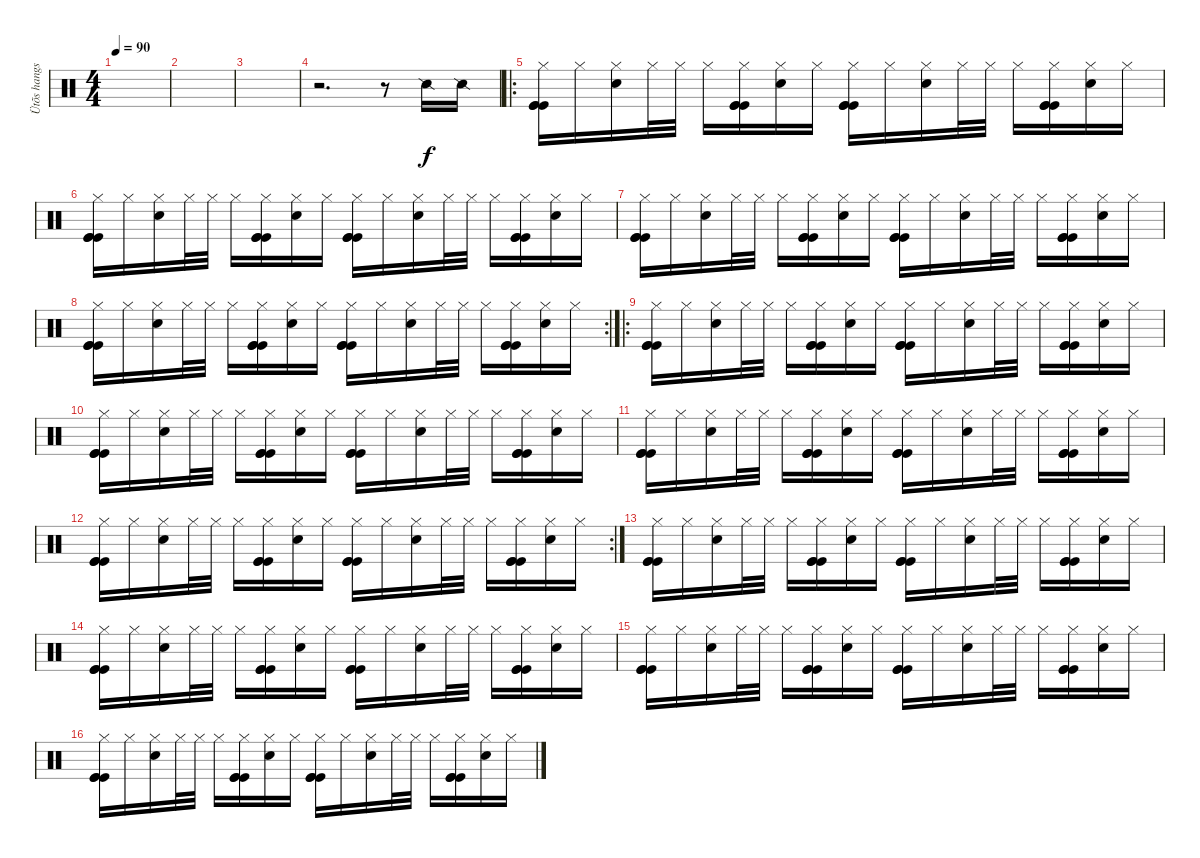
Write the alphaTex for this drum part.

\track ("Ütõs hangszer" "Ütõs hangs") {instrument percussion}
\staff {score}
\articulation defaults
\ts (4 4)
\tempo 90
\clef neutral
\ks c
|
|
|
r.2{d} r.8 "Snare (side stick) 2".16 "Snare (side stick) 2".16 |
\ro
("Hi-Hat (closed)" "Kick (hit)" "Kick (hit)" "Kick (hit)").16 "Hi-Hat (closed)".16 ("Hi-Hat (closed)" "Electric Snare (hit)").16 "Hi-Hat (closed)".32 "Hi-Hat (closed)".32 "Hi-Hat (closed)".16 ("Hi-Hat (closed)" "Kick (hit)" "Kick (hit)" "Kick (hit)").16 ("Hi-Hat (closed)" "Electric Snare (hit)").16 "Hi-Hat (closed)".16 ("Hi-Hat (closed)" "Kick (hit)" "Kick (hit)" "Kick (hit)").16 "Hi-Hat (closed)".16 ("Hi-Hat (closed)" "Electric Snare (hit)").16 "Hi-Hat (closed)".32 "Hi-Hat (closed)".32 "Hi-Hat (closed)".16 ("Hi-Hat (closed)" "Kick (hit)" "Kick (hit)" "Kick (hit)").16 ("Hi-Hat (closed)" "Electric Snare (hit)").16 "Hi-Hat (closed)".16 |
("Hi-Hat (closed)" "Kick (hit)" "Kick (hit)" "Kick (hit)").16 "Hi-Hat (closed)".16 ("Hi-Hat (closed)" "Electric Snare (hit)").16 "Hi-Hat (closed)".32 "Hi-Hat (closed)".32 "Hi-Hat (closed)".16 ("Hi-Hat (closed)" "Kick (hit)" "Kick (hit)" "Kick (hit)").16 ("Hi-Hat (closed)" "Electric Snare (hit)").16 "Hi-Hat (closed)".16 ("Hi-Hat (closed)" "Kick (hit)" "Kick (hit)" "Kick (hit)").16 "Hi-Hat (closed)".16 ("Hi-Hat (closed)" "Electric Snare (hit)").16 "Hi-Hat (closed)".32 "Hi-Hat (closed)".32 "Hi-Hat (closed)".16 ("Hi-Hat (closed)" "Kick (hit)" "Kick (hit)" "Kick (hit)").16 ("Hi-Hat (closed)" "Electric Snare (hit)").16 "Hi-Hat (closed)".16 |
("Hi-Hat (closed)" "Kick (hit)" "Kick (hit)" "Kick (hit)").16 "Hi-Hat (closed)".16 ("Hi-Hat (closed)" "Electric Snare (hit)").16 "Hi-Hat (closed)".32 "Hi-Hat (closed)".32 "Hi-Hat (closed)".16 ("Hi-Hat (closed)" "Kick (hit)" "Kick (hit)" "Kick (hit)").16 ("Hi-Hat (closed)" "Electric Snare (hit)").16 "Hi-Hat (closed)".16 ("Hi-Hat (closed)" "Kick (hit)" "Kick (hit)" "Kick (hit)").16 "Hi-Hat (closed)".16 ("Hi-Hat (closed)" "Electric Snare (hit)").16 "Hi-Hat (closed)".32 "Hi-Hat (closed)".32 "Hi-Hat (closed)".16 ("Hi-Hat (closed)" "Kick (hit)" "Kick (hit)" "Kick (hit)").16 ("Hi-Hat (closed)" "Electric Snare (hit)").16 "Hi-Hat (closed)".16 |
\rc 2
("Hi-Hat (closed)" "Kick (hit)" "Kick (hit)" "Kick (hit)").16 "Hi-Hat (closed)".16 ("Hi-Hat (closed)" "Electric Snare (hit)").16 "Hi-Hat (closed)".32 "Hi-Hat (closed)".32 "Hi-Hat (closed)".16 ("Hi-Hat (closed)" "Kick (hit)" "Kick (hit)" "Kick (hit)").16 ("Hi-Hat (closed)" "Electric Snare (hit)").16 "Hi-Hat (closed)".16 ("Hi-Hat (closed)" "Kick (hit)" "Kick (hit)" "Kick (hit)").16 "Hi-Hat (closed)".16 ("Hi-Hat (closed)" "Electric Snare (hit)").16 "Hi-Hat (closed)".32 "Hi-Hat (closed)".32 "Hi-Hat (closed)".16 ("Hi-Hat (closed)" "Kick (hit)" "Kick (hit)" "Kick (hit)").16 ("Hi-Hat (closed)" "Electric Snare (hit)").16 "Hi-Hat (closed)".16 |
\ro
("Hi-Hat (closed)" "Kick (hit)" "Kick (hit)" "Kick (hit)").16 "Hi-Hat (closed)".16 ("Hi-Hat (closed)" "Electric Snare (hit)").16 "Hi-Hat (closed)".32 "Hi-Hat (closed)".32 "Hi-Hat (closed)".16 ("Hi-Hat (closed)" "Kick (hit)" "Kick (hit)" "Kick (hit)").16 ("Hi-Hat (closed)" "Electric Snare (hit)").16 "Hi-Hat (closed)".16 ("Hi-Hat (closed)" "Kick (hit)" "Kick (hit)" "Kick (hit)").16 "Hi-Hat (closed)".16 ("Hi-Hat (closed)" "Electric Snare (hit)").16 "Hi-Hat (closed)".32 "Hi-Hat (closed)".32 "Hi-Hat (closed)".16 ("Hi-Hat (closed)" "Kick (hit)" "Kick (hit)" "Kick (hit)").16 ("Hi-Hat (closed)" "Electric Snare (hit)").16 "Hi-Hat (closed)".16 |
("Hi-Hat (closed)" "Kick (hit)" "Kick (hit)" "Kick (hit)").16 "Hi-Hat (closed)".16 ("Hi-Hat (closed)" "Electric Snare (hit)").16 "Hi-Hat (closed)".32 "Hi-Hat (closed)".32 "Hi-Hat (closed)".16 ("Hi-Hat (closed)" "Kick (hit)" "Kick (hit)" "Kick (hit)").16 ("Hi-Hat (closed)" "Electric Snare (hit)").16 "Hi-Hat (closed)".16 ("Hi-Hat (closed)" "Kick (hit)" "Kick (hit)" "Kick (hit)").16 "Hi-Hat (closed)".16 ("Hi-Hat (closed)" "Electric Snare (hit)").16 "Hi-Hat (closed)".32 "Hi-Hat (closed)".32 "Hi-Hat (closed)".16 ("Hi-Hat (closed)" "Kick (hit)" "Kick (hit)" "Kick (hit)").16 ("Hi-Hat (closed)" "Electric Snare (hit)").16 "Hi-Hat (closed)".16 |
("Hi-Hat (closed)" "Kick (hit)" "Kick (hit)" "Kick (hit)").16 "Hi-Hat (closed)".16 ("Hi-Hat (closed)" "Electric Snare (hit)").16 "Hi-Hat (closed)".32 "Hi-Hat (closed)".32 "Hi-Hat (closed)".16 ("Hi-Hat (closed)" "Kick (hit)" "Kick (hit)" "Kick (hit)").16 ("Hi-Hat (closed)" "Electric Snare (hit)").16 "Hi-Hat (closed)".16 ("Hi-Hat (closed)" "Kick (hit)" "Kick (hit)" "Kick (hit)").16 "Hi-Hat (closed)".16 ("Hi-Hat (closed)" "Electric Snare (hit)").16 "Hi-Hat (closed)".32 "Hi-Hat (closed)".32 "Hi-Hat (closed)".16 ("Hi-Hat (closed)" "Kick (hit)" "Kick (hit)" "Kick (hit)").16 ("Hi-Hat (closed)" "Electric Snare (hit)").16 "Hi-Hat (closed)".16 |
\rc 2
("Hi-Hat (closed)" "Kick (hit)" "Kick (hit)" "Kick (hit)").16 "Hi-Hat (closed)".16 ("Hi-Hat (closed)" "Electric Snare (hit)").16 "Hi-Hat (closed)".32 "Hi-Hat (closed)".32 "Hi-Hat (closed)".16 ("Hi-Hat (closed)" "Kick (hit)" "Kick (hit)" "Kick (hit)").16 ("Hi-Hat (closed)" "Electric Snare (hit)").16 "Hi-Hat (closed)".16 ("Hi-Hat (closed)" "Kick (hit)" "Kick (hit)" "Kick (hit)").16 "Hi-Hat (closed)".16 ("Hi-Hat (closed)" "Electric Snare (hit)").16 "Hi-Hat (closed)".32 "Hi-Hat (closed)".32 "Hi-Hat (closed)".16 ("Hi-Hat (closed)" "Kick (hit)" "Kick (hit)" "Kick (hit)").16 ("Hi-Hat (closed)" "Electric Snare (hit)").16 "Hi-Hat (closed)".16 |
("Hi-Hat (closed)" "Kick (hit)" "Kick (hit)" "Kick (hit)").16 "Hi-Hat (closed)".16 ("Hi-Hat (closed)" "Electric Snare (hit)").16 "Hi-Hat (closed)".32 "Hi-Hat (closed)".32 "Hi-Hat (closed)".16 ("Hi-Hat (closed)" "Kick (hit)" "Kick (hit)" "Kick (hit)").16 ("Hi-Hat (closed)" "Electric Snare (hit)").16 "Hi-Hat (closed)".16 ("Hi-Hat (closed)" "Kick (hit)" "Kick (hit)" "Kick (hit)").16 "Hi-Hat (closed)".16 ("Hi-Hat (closed)" "Electric Snare (hit)").16 "Hi-Hat (closed)".32 "Hi-Hat (closed)".32 "Hi-Hat (closed)".16 ("Hi-Hat (closed)" "Kick (hit)" "Kick (hit)" "Kick (hit)").16 ("Hi-Hat (closed)" "Electric Snare (hit)").16 "Hi-Hat (closed)".16 |
("Hi-Hat (closed)" "Kick (hit)" "Kick (hit)" "Kick (hit)").16 "Hi-Hat (closed)".16 ("Hi-Hat (closed)" "Electric Snare (hit)").16 "Hi-Hat (closed)".32 "Hi-Hat (closed)".32 "Hi-Hat (closed)".16 ("Hi-Hat (closed)" "Kick (hit)" "Kick (hit)" "Kick (hit)").16 ("Hi-Hat (closed)" "Electric Snare (hit)").16 "Hi-Hat (closed)".16 ("Hi-Hat (closed)" "Kick (hit)" "Kick (hit)" "Kick (hit)").16 "Hi-Hat (closed)".16 ("Hi-Hat (closed)" "Electric Snare (hit)").16 "Hi-Hat (closed)".32 "Hi-Hat (closed)".32 "Hi-Hat (closed)".16 ("Hi-Hat (closed)" "Kick (hit)" "Kick (hit)" "Kick (hit)").16 ("Hi-Hat (closed)" "Electric Snare (hit)").16 "Hi-Hat (closed)".16 |
("Hi-Hat (closed)" "Kick (hit)" "Kick (hit)" "Kick (hit)").16 "Hi-Hat (closed)".16 ("Hi-Hat (closed)" "Electric Snare (hit)").16 "Hi-Hat (closed)".32 "Hi-Hat (closed)".32 "Hi-Hat (closed)".16 ("Hi-Hat (closed)" "Kick (hit)" "Kick (hit)" "Kick (hit)").16 ("Hi-Hat (closed)" "Electric Snare (hit)").16 "Hi-Hat (closed)".16 ("Hi-Hat (closed)" "Kick (hit)" "Kick (hit)" "Kick (hit)").16 "Hi-Hat (closed)".16 ("Hi-Hat (closed)" "Electric Snare (hit)").16 "Hi-Hat (closed)".32 "Hi-Hat (closed)".32 "Hi-Hat (closed)".16 ("Hi-Hat (closed)" "Kick (hit)" "Kick (hit)" "Kick (hit)").16 ("Hi-Hat (closed)" "Electric Snare (hit)").16 "Hi-Hat (closed)".16 |
("Hi-Hat (closed)" "Kick (hit)" "Kick (hit)" "Kick (hit)").16 "Hi-Hat (closed)".16 ("Hi-Hat (closed)" "Electric Snare (hit)").16 "Hi-Hat (closed)".32 "Hi-Hat (closed)".32 "Hi-Hat (closed)".16 ("Hi-Hat (closed)" "Kick (hit)" "Kick (hit)" "Kick (hit)").16 ("Hi-Hat (closed)" "Electric Snare (hit)").16 "Hi-Hat (closed)".16 ("Hi-Hat (closed)" "Kick (hit)" "Kick (hit)" "Kick (hit)").16 "Hi-Hat (closed)".16 ("Hi-Hat (closed)" "Electric Snare (hit)").16 "Hi-Hat (closed)".32 "Hi-Hat (closed)".32 "Hi-Hat (closed)".16 ("Hi-Hat (closed)" "Kick (hit)" "Kick (hit)" "Kick (hit)").16 ("Hi-Hat (closed)" "Electric Snare (hit)").16 "Hi-Hat (closed)".16
